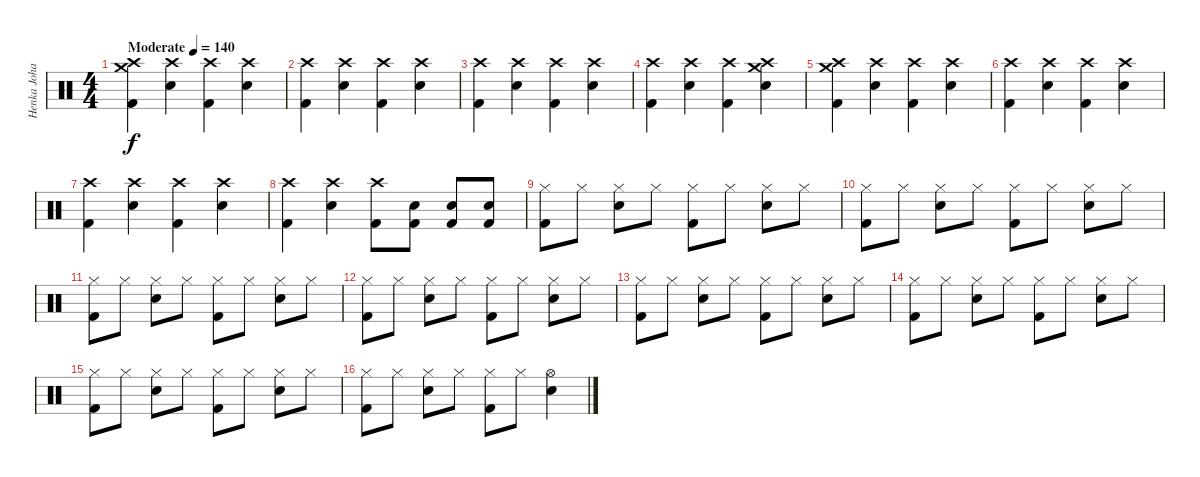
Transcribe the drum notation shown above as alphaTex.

\track ("Henka Johannson " "Henka Joha") {instrument percussion}
\staff {score}
\articulation defaults
\ts (4 4)
\tempo (140 "Moderate")
\clef neutral
\ks c
("Crash medium (hit)" "Crash high (hit)" "Kick (hit) 2").4{dy f} ("Crash high (hit)" "Electric Snare (hit)").4 ("Crash high (hit)" "Kick (hit) 2").4 ("Crash high (hit)" "Electric Snare (hit)").4 |
("Crash high (hit)" "Kick (hit) 2").4 ("Crash high (hit)" "Electric Snare (hit)").4 ("Crash high (hit)" "Kick (hit) 2").4 ("Crash high (hit)" "Electric Snare (hit)").4 |
("Crash high (hit)" "Kick (hit) 2").4 ("Crash high (hit)" "Electric Snare (hit)").4 ("Crash high (hit)" "Kick (hit) 2").4 ("Crash high (hit)" "Electric Snare (hit)").4 |
("Crash high (hit)" "Kick (hit) 2").4 ("Crash high (hit)" "Electric Snare (hit)").4 ("Crash high (hit)" "Kick (hit) 2").4 ("Crash medium (hit)" "Crash high (hit)" "Electric Snare (hit)").4 |
("Crash medium (hit)" "Crash high (hit)" "Kick (hit) 2").4 ("Crash high (hit)" "Electric Snare (hit)").4 ("Crash high (hit)" "Kick (hit) 2").4 ("Crash high (hit)" "Electric Snare (hit)").4 |
("Crash high (hit)" "Kick (hit) 2").4 ("Crash high (hit)" "Electric Snare (hit)").4 ("Crash high (hit)" "Kick (hit) 2").4 ("Crash high (hit)" "Electric Snare (hit)").4 |
("Crash high (hit)" "Kick (hit) 2").4 ("Crash high (hit)" "Electric Snare (hit)").4 ("Crash high (hit)" "Kick (hit) 2").4 ("Crash high (hit)" "Electric Snare (hit)").4 |
("Crash high (hit)" "Kick (hit) 2").4 ("Crash high (hit)" "Electric Snare (hit)").4 ("Crash high (hit)" "Kick (hit) 2").8 ("Electric Snare (hit)" "Kick (hit) 2").8 ("Electric Snare (hit)" "Kick (hit) 2").8 ("Electric Snare (hit)" "Kick (hit) 2").8 |
("Hi-Hat (closed)" "Kick (hit) 2").8 "Hi-Hat (closed)".8 ("Hi-Hat (closed)" "Electric Snare (hit)").8 "Hi-Hat (closed)".8 ("Hi-Hat (closed)" "Kick (hit) 2").8 "Hi-Hat (closed)".8 ("Hi-Hat (closed)" "Electric Snare (hit)").8 "Hi-Hat (closed)".8 |
("Hi-Hat (closed)" "Kick (hit) 2").8 "Hi-Hat (closed)".8 ("Hi-Hat (closed)" "Electric Snare (hit)").8 "Hi-Hat (closed)".8 ("Hi-Hat (closed)" "Kick (hit) 2").8 "Hi-Hat (closed)".8 ("Hi-Hat (closed)" "Electric Snare (hit)").8 "Hi-Hat (closed)".8 |
("Hi-Hat (closed)" "Kick (hit) 2").8 "Hi-Hat (closed)".8 ("Hi-Hat (closed)" "Electric Snare (hit)").8 "Hi-Hat (closed)".8 ("Hi-Hat (closed)" "Kick (hit) 2").8 "Hi-Hat (closed)".8 ("Hi-Hat (closed)" "Electric Snare (hit)").8 "Hi-Hat (closed)".8 |
("Hi-Hat (closed)" "Kick (hit) 2").8 "Hi-Hat (closed)".8 ("Hi-Hat (closed)" "Electric Snare (hit)").8 "Hi-Hat (closed)".8 ("Hi-Hat (closed)" "Kick (hit) 2").8 "Hi-Hat (closed)".8 ("Hi-Hat (closed)" "Electric Snare (hit)").8 "Hi-Hat (closed)".8 |
("Hi-Hat (closed)" "Kick (hit) 2").8 "Hi-Hat (closed)".8 ("Hi-Hat (closed)" "Electric Snare (hit)").8 "Hi-Hat (closed)".8 ("Hi-Hat (closed)" "Kick (hit) 2").8 "Hi-Hat (closed)".8 ("Hi-Hat (closed)" "Electric Snare (hit)").8 "Hi-Hat (closed)".8 |
("Hi-Hat (closed)" "Kick (hit) 2").8 "Hi-Hat (closed)".8 ("Hi-Hat (closed)" "Electric Snare (hit)").8 "Hi-Hat (closed)".8 ("Hi-Hat (closed)" "Kick (hit) 2").8 "Hi-Hat (closed)".8 ("Hi-Hat (closed)" "Electric Snare (hit)").8 "Hi-Hat (closed)".8 |
("Hi-Hat (closed)" "Kick (hit) 2").8 "Hi-Hat (closed)".8 ("Hi-Hat (closed)" "Electric Snare (hit)").8 "Hi-Hat (closed)".8 ("Hi-Hat (closed)" "Kick (hit) 2").8 "Hi-Hat (closed)".8 ("Hi-Hat (closed)" "Electric Snare (hit)").8 "Hi-Hat (closed)".8 |
("Hi-Hat (closed)" "Kick (hit) 2").8 "Hi-Hat (closed)".8 ("Hi-Hat (closed)" "Electric Snare (hit)").8 "Hi-Hat (closed)".8 ("Hi-Hat (closed)" "Kick (hit) 2").8 "Hi-Hat (closed)".8 ("Hi-Hat (open)" "Electric Snare (hit)").4
